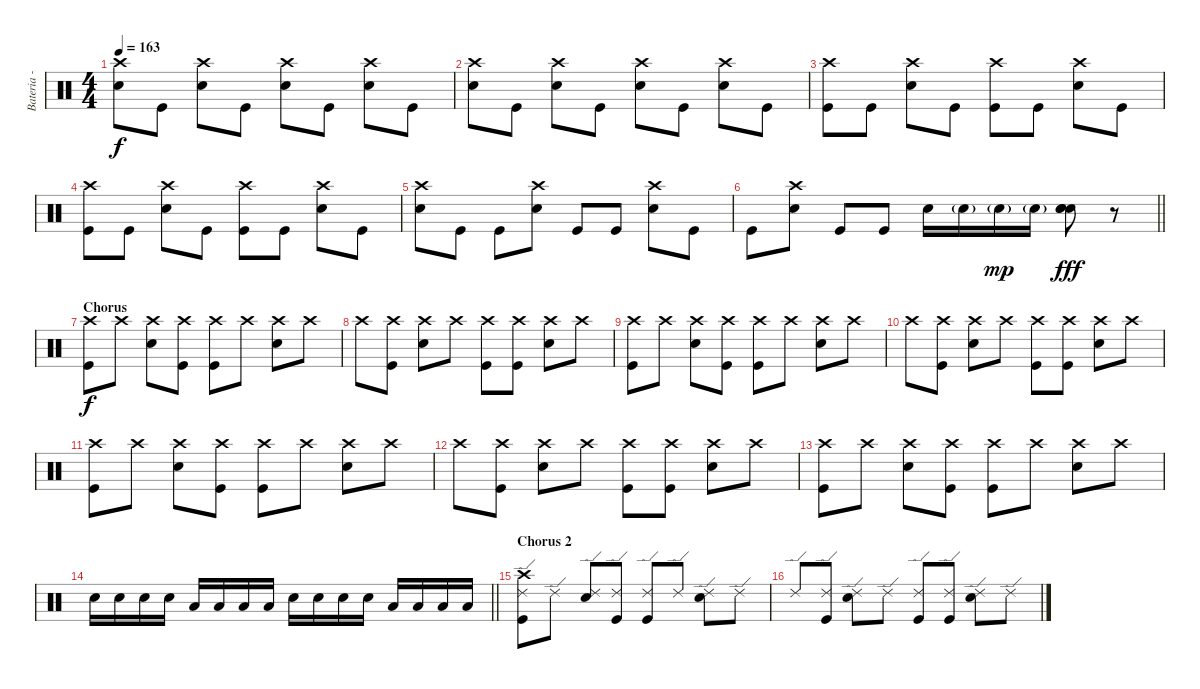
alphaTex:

\track ("Bateria - Larzon " "Bateria - ") {instrument percussion}
\staff {score}
\articulation defaults
\ts (4 4)
\tempo 163
\clef neutral
\ks c
("Electric Snare (hit)" "Crash high (hit)").8{dy f} "Kick (hit)".8 ("Electric Snare (hit)" "Crash high (hit)").8 "Kick (hit)".8 ("Electric Snare (hit)" "Crash high (hit)").8 "Kick (hit)".8 ("Electric Snare (hit)" "Crash high (hit)").8 "Kick (hit)".8 |
("Electric Snare (hit)" "Crash high (hit)").8 "Kick (hit)".8 ("Electric Snare (hit)" "Crash high (hit)").8 "Kick (hit)".8 ("Electric Snare (hit)" "Crash high (hit)").8 "Kick (hit)".8 ("Electric Snare (hit)" "Crash high (hit)").8 "Kick (hit)".8 |
("Kick (hit)" "Crash high (hit)").8 "Kick (hit)".8 ("Electric Snare (hit)" "Crash high (hit)").8 "Kick (hit)".8 ("Kick (hit)" "Crash high (hit)").8 "Kick (hit)".8 ("Electric Snare (hit)" "Crash high (hit)").8 "Kick (hit)".8 |
("Kick (hit)" "Crash high (hit)").8 "Kick (hit)".8 ("Electric Snare (hit)" "Crash high (hit)").8 "Kick (hit)".8 ("Kick (hit)" "Crash high (hit)").8 "Kick (hit)".8 ("Electric Snare (hit)" "Crash high (hit)").8 "Kick (hit)".8 |
("Electric Snare (hit)" "Crash high (hit)").8 "Kick (hit)".8 "Kick (hit)".8 ("Electric Snare (hit)" "Crash high (hit)").8 "Kick (hit)".8 "Kick (hit)".8 ("Electric Snare (hit)" "Crash high (hit)").8 "Kick (hit)".8 |
\barLineRight lightlight "Kick (hit)".8
("Electric Snare (hit)" "Crash high (hit)").8 "Kick (hit)".8 "Kick (hit)".8 "Electric Snare (hit)".16 "Electric Snare (hit)"{g}.16 "Electric Snare (hit)"{g}.16{dy mp} "Electric Snare (hit)"{g}.16 ("Electric Snare (hit)" "Electric Snare (hit)" "Electric Snare (hit)").8{dy fff} r.8 |
\section ("" "Chorus")
("Kick (hit)" "Crash high (hit)").8{dy f} "Crash high (hit)".8 ("Electric Snare (hit)" "Crash high (hit)").8 ("Kick (hit)" "Crash high (hit)").8 ("Kick (hit)" "Crash high (hit)").8 "Crash high (hit)".8 ("Electric Snare (hit)" "Crash high (hit)").8 "Crash high (hit)".8 |
"Crash high (hit)".8 ("Kick (hit)" "Crash high (hit)").8 ("Electric Snare (hit)" "Crash high (hit)").8 "Crash high (hit)".8 ("Kick (hit)" "Crash high (hit)").8 ("Kick (hit)" "Crash high (hit)").8 ("Electric Snare (hit)" "Crash high (hit)").8 "Crash high (hit)".8 |
("Kick (hit)" "Crash high (hit)").8 "Crash high (hit)".8 ("Electric Snare (hit)" "Crash high (hit)").8 ("Kick (hit)" "Crash high (hit)").8 ("Kick (hit)" "Crash high (hit)").8 "Crash high (hit)".8 ("Electric Snare (hit)" "Crash high (hit)").8 "Crash high (hit)".8 |
"Crash high (hit)".8 ("Kick (hit)" "Crash high (hit)").8 ("Electric Snare (hit)" "Crash high (hit)").8 "Crash high (hit)".8 ("Kick (hit)" "Crash high (hit)").8 ("Kick (hit)" "Crash high (hit)").8 ("Electric Snare (hit)" "Crash high (hit)").8 "Crash high (hit)".8 |
("Kick (hit)" "Crash high (hit)").8 "Crash high (hit)".8 ("Electric Snare (hit)" "Crash high (hit)").8 ("Kick (hit)" "Crash high (hit)").8 ("Kick (hit)" "Crash high (hit)").8 "Crash high (hit)".8 ("Electric Snare (hit)" "Crash high (hit)").8 "Crash high (hit)".8 |
"Crash high (hit)".8 ("Kick (hit)" "Crash high (hit)").8 ("Electric Snare (hit)" "Crash high (hit)").8 "Crash high (hit)".8 ("Kick (hit)" "Crash high (hit)").8 ("Kick (hit)" "Crash high (hit)").8 ("Electric Snare (hit)" "Crash high (hit)").8 "Crash high (hit)".8 |
("Kick (hit)" "Crash high (hit)").8 "Crash high (hit)".8 ("Electric Snare (hit)" "Crash high (hit)").8 ("Kick (hit)" "Crash high (hit)").8 ("Kick (hit)" "Crash high (hit)").8 "Crash high (hit)".8 ("Electric Snare (hit)" "Crash high (hit)").8 "Crash high (hit)".8 |
\barLineRight lightlight "Electric Snare (hit)".16 "Electric Snare (hit)".16 "Electric Snare (hit)".16 "Electric Snare (hit)".16 "Low Tom (hit)".16 "Low Tom (hit)".16 "Low Tom (hit)".16 "Low Tom (hit)".16 "Electric Snare (hit)".16 "Electric Snare (hit)".16 "Electric Snare (hit)".16 "Electric Snare (hit)".16 "Low Tom (hit)".16 "Low Tom (hit)".16 "Low Tom (hit)".16 "Low Tom (hit)".16
|
\section ("" "Chorus 2")
("Kick (hit)" "Crash high (hit)" "Ride (edge) 2").8 "Ride (edge) 2".8 ("Electric Snare (hit)" "Ride (edge) 2").8 ("Kick (hit)" "Ride (edge) 2").8 ("Kick (hit)" "Ride (edge) 2").8 "Ride (edge) 2".8 ("Electric Snare (hit)" "Ride (edge) 2").8 "Ride (edge) 2".8 |
"Ride (edge) 2".8 ("Kick (hit)" "Ride (edge) 2").8 ("Electric Snare (hit)" "Ride (edge) 2").8 "Ride (edge) 2".8 ("Kick (hit)" "Ride (edge) 2").8 ("Kick (hit)" "Ride (edge) 2").8 ("Electric Snare (hit)" "Ride (edge) 2").8 "Ride (edge) 2".8
